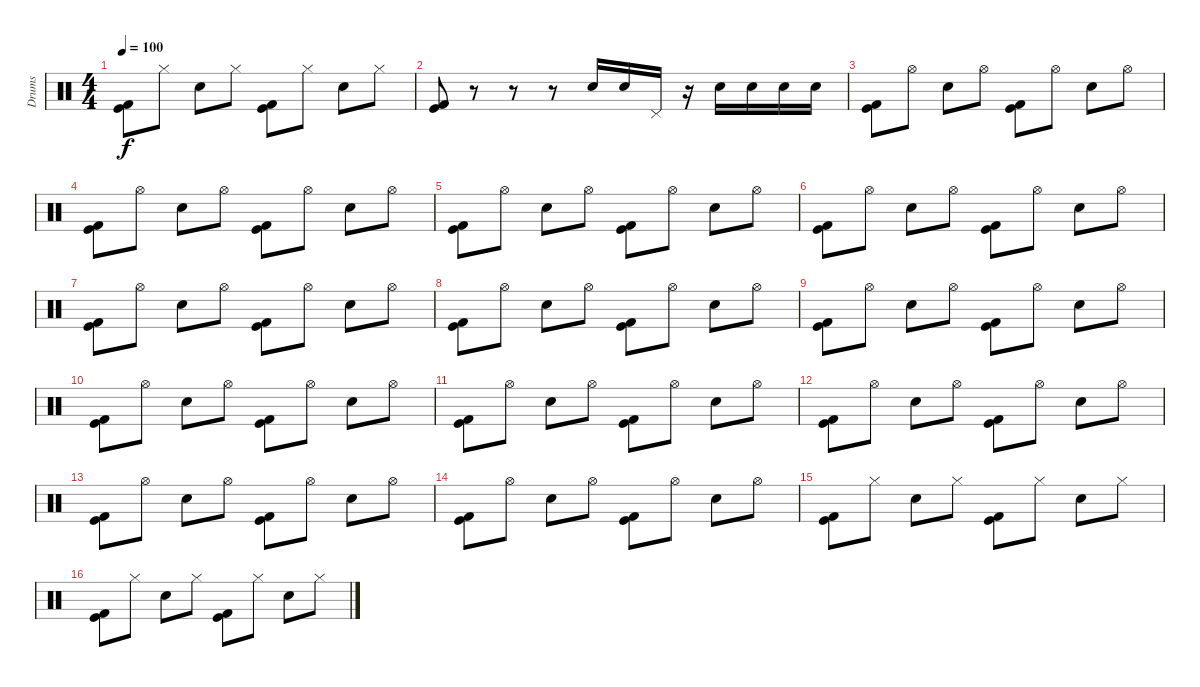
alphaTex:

\track ("Drums" "Drums") {instrument percussion}
\staff {score}
\articulation defaults
\ts (4 4)
\tempo 100
\clef neutral
\ks c
("Kick (hit)" "Kick (hit) 2").8{dy f} "Hi-Hat (closed)".8 "Snare (hit) 2".8 "Hi-Hat (closed)".8 ("Kick (hit)" "Kick (hit) 2").8 "Hi-Hat (closed)".8 "Snare (hit) 2".8 "Hi-Hat (closed)".8 |
("Kick (hit)" "Kick (hit) 2").8 r.8 r.8 r.8 "Snare (hit) 2".16 "Snare (hit) 2".16 "Pedal Hi-Hat (hit)".16 r.16 "Snare (hit) 2".16 "Snare (hit) 2".16 "Snare (hit) 2".16 "Snare (hit) 2".16 |
("Kick (hit) 2" "Kick (hit)").8 "Hi-Hat (open)".8 "Snare (hit) 2".8 "Hi-Hat (open)".8 ("Kick (hit) 2" "Kick (hit)").8 "Hi-Hat (open)".8 "Snare (hit) 2".8 "Hi-Hat (open)".8 |
("Kick (hit) 2" "Kick (hit)").8 "Hi-Hat (open)".8 "Snare (hit) 2".8 "Hi-Hat (open)".8 ("Kick (hit) 2" "Kick (hit)").8 "Hi-Hat (open)".8 "Snare (hit) 2".8 "Hi-Hat (open)".8 |
("Kick (hit) 2" "Kick (hit)").8 "Hi-Hat (open)".8 "Snare (hit) 2".8 "Hi-Hat (open)".8 ("Kick (hit) 2" "Kick (hit)").8 "Hi-Hat (open)".8 "Snare (hit) 2".8 "Hi-Hat (open)".8 |
("Kick (hit) 2" "Kick (hit)").8 "Hi-Hat (open)".8 "Snare (hit) 2".8 "Hi-Hat (open)".8 ("Kick (hit) 2" "Kick (hit)").8 "Hi-Hat (open)".8 "Snare (hit) 2".8 "Hi-Hat (open)".8 |
("Kick (hit) 2" "Kick (hit)").8 "Hi-Hat (open)".8 "Snare (hit) 2".8 "Hi-Hat (open)".8 ("Kick (hit) 2" "Kick (hit)").8 "Hi-Hat (open)".8 "Snare (hit) 2".8 "Hi-Hat (open)".8 |
("Kick (hit) 2" "Kick (hit)").8 "Hi-Hat (open)".8 "Snare (hit) 2".8 "Hi-Hat (open)".8 ("Kick (hit) 2" "Kick (hit)").8 "Hi-Hat (open)".8 "Snare (hit) 2".8 "Hi-Hat (open)".8 |
("Kick (hit) 2" "Kick (hit)").8 "Hi-Hat (open)".8 "Snare (hit) 2".8 "Hi-Hat (open)".8 ("Kick (hit) 2" "Kick (hit)").8 "Hi-Hat (open)".8 "Snare (hit) 2".8 "Hi-Hat (open)".8 |
("Kick (hit) 2" "Kick (hit)").8 "Hi-Hat (open)".8 "Snare (hit) 2".8 "Hi-Hat (open)".8 ("Kick (hit) 2" "Kick (hit)").8 "Hi-Hat (open)".8 "Snare (hit) 2".8 "Hi-Hat (open)".8 |
("Kick (hit) 2" "Kick (hit)").8 "Hi-Hat (open)".8 "Snare (hit) 2".8 "Hi-Hat (open)".8 ("Kick (hit) 2" "Kick (hit)").8 "Hi-Hat (open)".8 "Snare (hit) 2".8 "Hi-Hat (open)".8 |
("Kick (hit) 2" "Kick (hit)").8 "Hi-Hat (open)".8 "Snare (hit) 2".8 "Hi-Hat (open)".8 ("Kick (hit) 2" "Kick (hit)").8 "Hi-Hat (open)".8 "Snare (hit) 2".8 "Hi-Hat (open)".8 |
("Kick (hit) 2" "Kick (hit)").8 "Hi-Hat (open)".8 "Snare (hit) 2".8 "Hi-Hat (open)".8 ("Kick (hit) 2" "Kick (hit)").8 "Hi-Hat (open)".8 "Snare (hit) 2".8 "Hi-Hat (open)".8 |
("Kick (hit) 2" "Kick (hit)").8 "Hi-Hat (open)".8 "Snare (hit) 2".8 "Hi-Hat (open)".8 ("Kick (hit) 2" "Kick (hit)").8 "Hi-Hat (open)".8 "Snare (hit) 2".8 "Hi-Hat (open)".8 |
("Kick (hit)" "Kick (hit) 2").8 "Hi-Hat (closed)".8 "Snare (hit) 2".8 "Hi-Hat (closed)".8 ("Kick (hit)" "Kick (hit) 2").8 "Hi-Hat (closed)".8 "Snare (hit) 2".8 "Hi-Hat (closed)".8 |
("Kick (hit)" "Kick (hit) 2").8 "Hi-Hat (closed)".8 "Snare (hit) 2".8 "Hi-Hat (closed)".8 ("Kick (hit)" "Kick (hit) 2").8 "Hi-Hat (closed)".8 "Snare (hit) 2".8 "Hi-Hat (closed)".8
